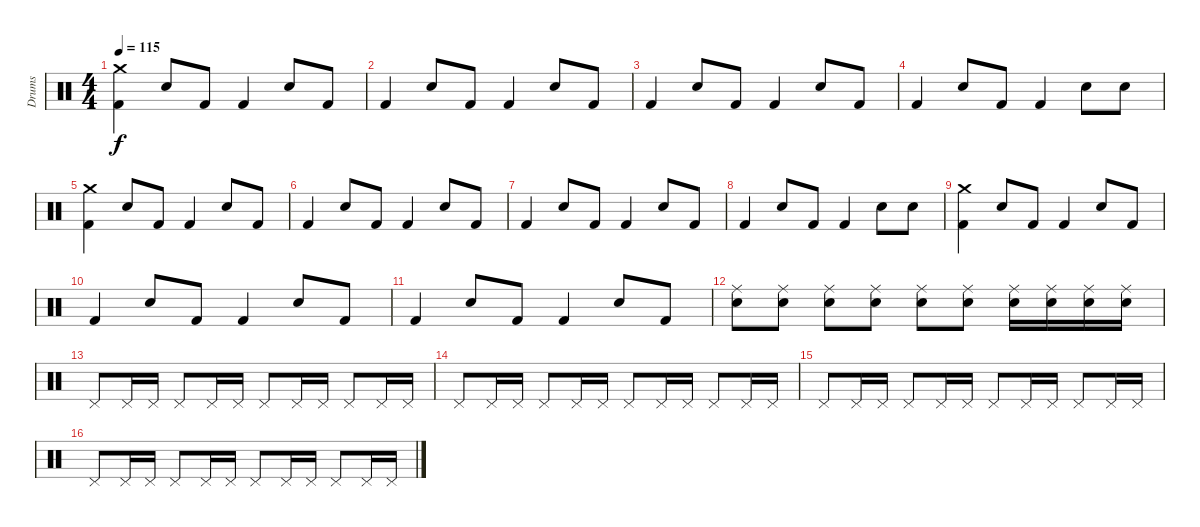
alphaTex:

\track ("Drums" "Drums") {instrument percussion}
\staff {score}
\articulation defaults
\ts (4 4)
\tempo 115
\clef neutral
\ks c
("Crash medium (hit)" "Kick (hit) 2").4{dy f} "Snare (hit) 2".8 "Kick (hit) 2".8 "Kick (hit) 2".4 "Snare (hit) 2".8 "Kick (hit) 2".8 |
"Kick (hit) 2".4 "Snare (hit) 2".8 "Kick (hit) 2".8 "Kick (hit) 2".4 "Snare (hit) 2".8 "Kick (hit) 2".8 |
"Kick (hit) 2".4 "Snare (hit) 2".8 "Kick (hit) 2".8 "Kick (hit) 2".4 "Snare (hit) 2".8 "Kick (hit) 2".8 |
"Kick (hit) 2".4 "Snare (hit) 2".8 "Kick (hit) 2".8 "Kick (hit) 2".4 "Snare (hit) 2".8 "Snare (hit) 2".8 |
("Crash medium (hit)" "Kick (hit) 2").4 "Snare (hit) 2".8 "Kick (hit) 2".8 "Kick (hit) 2".4 "Snare (hit) 2".8 "Kick (hit) 2".8 |
"Kick (hit) 2".4 "Snare (hit) 2".8 "Kick (hit) 2".8 "Kick (hit) 2".4 "Snare (hit) 2".8 "Kick (hit) 2".8 |
"Kick (hit) 2".4 "Snare (hit) 2".8 "Kick (hit) 2".8 "Kick (hit) 2".4 "Snare (hit) 2".8 "Kick (hit) 2".8 |
"Kick (hit) 2".4 "Snare (hit) 2".8 "Kick (hit) 2".8 "Kick (hit) 2".4 "Snare (hit) 2".8 "Snare (hit) 2".8 |
("Kick (hit) 2" "Crash medium (hit)").4 "Snare (hit) 2".8 "Kick (hit) 2".8 "Kick (hit) 2".4 "Snare (hit) 2".8 "Kick (hit) 2".8 |
"Kick (hit) 2".4 "Snare (hit) 2".8 "Kick (hit) 2".8 "Kick (hit) 2".4 "Snare (hit) 2".8 "Kick (hit) 2".8 |
"Kick (hit) 2".4 "Snare (hit) 2".8 "Kick (hit) 2".8 "Kick (hit) 2".4 "Snare (hit) 2".8 "Kick (hit) 2".8 |
("Snare (hit) 2" "Ride (middle)").8 ("Snare (hit) 2" "Ride (middle)").8 ("Snare (hit) 2" "Ride (middle)").8 ("Snare (hit) 2" "Ride (middle)").8 ("Snare (hit) 2" "Ride (middle)").8 ("Snare (hit) 2" "Ride (middle)").8 ("Snare (hit) 2" "Ride (middle)").16 ("Snare (hit) 2" "Ride (middle)").16 ("Snare (hit) 2" "Ride (middle)").16 ("Snare (hit) 2" "Ride (middle)").16 |
"Pedal Hi-Hat (hit)".8 "Pedal Hi-Hat (hit)".16 "Pedal Hi-Hat (hit)".16 "Pedal Hi-Hat (hit)".8 "Pedal Hi-Hat (hit)".16 "Pedal Hi-Hat (hit)".16 "Pedal Hi-Hat (hit)".8 "Pedal Hi-Hat (hit)".16 "Pedal Hi-Hat (hit)".16 "Pedal Hi-Hat (hit)".8 "Pedal Hi-Hat (hit)".16 "Pedal Hi-Hat (hit)".16 |
"Pedal Hi-Hat (hit)".8 "Pedal Hi-Hat (hit)".16 "Pedal Hi-Hat (hit)".16 "Pedal Hi-Hat (hit)".8 "Pedal Hi-Hat (hit)".16 "Pedal Hi-Hat (hit)".16 "Pedal Hi-Hat (hit)".8 "Pedal Hi-Hat (hit)".16 "Pedal Hi-Hat (hit)".16 "Pedal Hi-Hat (hit)".8 "Pedal Hi-Hat (hit)".16 "Pedal Hi-Hat (hit)".16 |
"Pedal Hi-Hat (hit)".8 "Pedal Hi-Hat (hit)".16 "Pedal Hi-Hat (hit)".16 "Pedal Hi-Hat (hit)".8 "Pedal Hi-Hat (hit)".16 "Pedal Hi-Hat (hit)".16 "Pedal Hi-Hat (hit)".8 "Pedal Hi-Hat (hit)".16 "Pedal Hi-Hat (hit)".16 "Pedal Hi-Hat (hit)".8 "Pedal Hi-Hat (hit)".16 "Pedal Hi-Hat (hit)".16 |
"Pedal Hi-Hat (hit)".8 "Pedal Hi-Hat (hit)".16 "Pedal Hi-Hat (hit)".16 "Pedal Hi-Hat (hit)".8 "Pedal Hi-Hat (hit)".16 "Pedal Hi-Hat (hit)".16 "Pedal Hi-Hat (hit)".8 "Pedal Hi-Hat (hit)".16 "Pedal Hi-Hat (hit)".16 "Pedal Hi-Hat (hit)".8 "Pedal Hi-Hat (hit)".16 "Pedal Hi-Hat (hit)".16
